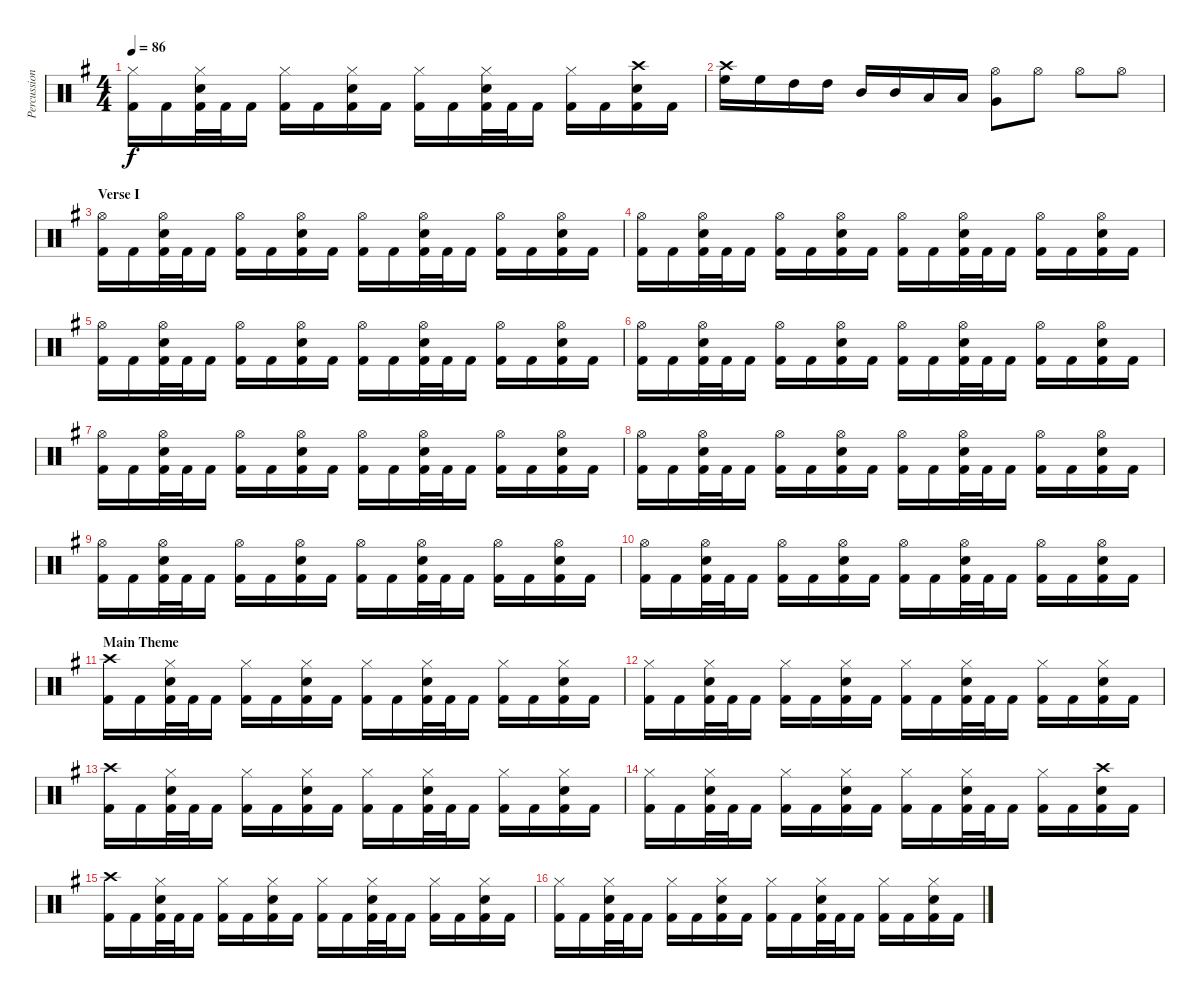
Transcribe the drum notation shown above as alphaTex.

\track ("Percussions" "Percussion") {instrument percussion}
\staff {score}
\articulation defaults
\ts (4 4)
\tempo 86
\clef neutral
\ks eminor
("Hi-Hat (closed)" "Kick (hit) 2").16{dy f} "Kick (hit) 2".16 ("Hi-Hat (closed)" "Snare (hit) 2" "Kick (hit) 2").32 "Kick (hit) 2".32 "Kick (hit) 2".16 ("Hi-Hat (closed)" "Kick (hit) 2").16 "Kick (hit) 2".16 ("Hi-Hat (closed)" "Snare (hit) 2" "Kick (hit) 2").16 "Kick (hit) 2".16 ("Hi-Hat (closed)" "Kick (hit) 2").16 "Kick (hit) 2".16 ("Hi-Hat (closed)" "Snare (hit) 2" "Kick (hit) 2").32 "Kick (hit) 2".32 "Kick (hit) 2".16 ("Hi-Hat (closed)" "Kick (hit) 2").16 "Kick (hit) 2".16 ("Crash high (hit)" "Snare (hit) 2" "Kick (hit) 2").16 "Kick (hit) 2".16 |
("Crash high (hit)" "High Floor Tom (hit)").16 "High Floor Tom (hit)".16 "High Tom (hit)".16 "High Tom (hit)".16 "Mid Tom (hit)".16 "Mid Tom (hit)".16 "Low Tom (hit)".16 "Low Tom (hit)".16 ("Hi-Hat (open)" "Very Low Tom (hit)").8 "Hi-Hat (open)".8 "Hi-Hat (open)".8 "Hi-Hat (open)".8 |
\section ("" "Verse I")
("Hi-Hat (open)" "Kick (hit) 2").16 "Kick (hit) 2".16 ("Hi-Hat (open)" "Snare (hit) 2" "Kick (hit) 2").32 "Kick (hit) 2".32 "Kick (hit) 2".16 ("Hi-Hat (open)" "Kick (hit) 2").16 "Kick (hit) 2".16 ("Hi-Hat (open)" "Snare (hit) 2" "Kick (hit) 2").16 "Kick (hit) 2".16 ("Hi-Hat (open)" "Kick (hit) 2").16 "Kick (hit) 2".16 ("Hi-Hat (open)" "Snare (hit) 2" "Kick (hit) 2").32 "Kick (hit) 2".32 "Kick (hit) 2".16 ("Hi-Hat (open)" "Kick (hit) 2").16 "Kick (hit) 2".16 ("Hi-Hat (open)" "Snare (hit) 2" "Kick (hit) 2").16 "Kick (hit) 2".16 |
("Hi-Hat (open)" "Kick (hit) 2").16 "Kick (hit) 2".16 ("Hi-Hat (open)" "Snare (hit) 2" "Kick (hit) 2").32 "Kick (hit) 2".32 "Kick (hit) 2".16 ("Hi-Hat (open)" "Kick (hit) 2").16 "Kick (hit) 2".16 ("Hi-Hat (open)" "Snare (hit) 2" "Kick (hit) 2").16 "Kick (hit) 2".16 ("Hi-Hat (open)" "Kick (hit) 2").16 "Kick (hit) 2".16 ("Hi-Hat (open)" "Snare (hit) 2" "Kick (hit) 2").32 "Kick (hit) 2".32 "Kick (hit) 2".16 ("Hi-Hat (open)" "Kick (hit) 2").16 "Kick (hit) 2".16 ("Hi-Hat (open)" "Snare (hit) 2" "Kick (hit) 2").16 "Kick (hit) 2".16 |
("Hi-Hat (open)" "Kick (hit) 2").16 "Kick (hit) 2".16 ("Hi-Hat (open)" "Snare (hit) 2" "Kick (hit) 2").32 "Kick (hit) 2".32 "Kick (hit) 2".16 ("Hi-Hat (open)" "Kick (hit) 2").16 "Kick (hit) 2".16 ("Hi-Hat (open)" "Snare (hit) 2" "Kick (hit) 2").16 "Kick (hit) 2".16 ("Hi-Hat (open)" "Kick (hit) 2").16 "Kick (hit) 2".16 ("Hi-Hat (open)" "Snare (hit) 2" "Kick (hit) 2").32 "Kick (hit) 2".32 "Kick (hit) 2".16 ("Hi-Hat (open)" "Kick (hit) 2").16 "Kick (hit) 2".16 ("Hi-Hat (open)" "Snare (hit) 2" "Kick (hit) 2").16 "Kick (hit) 2".16 |
("Hi-Hat (open)" "Kick (hit) 2").16 "Kick (hit) 2".16 ("Hi-Hat (open)" "Snare (hit) 2" "Kick (hit) 2").32 "Kick (hit) 2".32 "Kick (hit) 2".16 ("Hi-Hat (open)" "Kick (hit) 2").16 "Kick (hit) 2".16 ("Hi-Hat (open)" "Snare (hit) 2" "Kick (hit) 2").16 "Kick (hit) 2".16 ("Hi-Hat (open)" "Kick (hit) 2").16 "Kick (hit) 2".16 ("Hi-Hat (open)" "Snare (hit) 2" "Kick (hit) 2").32 "Kick (hit) 2".32 "Kick (hit) 2".16 ("Hi-Hat (open)" "Kick (hit) 2").16 "Kick (hit) 2".16 ("Hi-Hat (open)" "Snare (hit) 2" "Kick (hit) 2").16 "Kick (hit) 2".16 |
("Hi-Hat (open)" "Kick (hit) 2").16 "Kick (hit) 2".16 ("Hi-Hat (open)" "Snare (hit) 2" "Kick (hit) 2").32 "Kick (hit) 2".32 "Kick (hit) 2".16 ("Hi-Hat (open)" "Kick (hit) 2").16 "Kick (hit) 2".16 ("Hi-Hat (open)" "Snare (hit) 2" "Kick (hit) 2").16 "Kick (hit) 2".16 ("Hi-Hat (open)" "Kick (hit) 2").16 "Kick (hit) 2".16 ("Hi-Hat (open)" "Snare (hit) 2" "Kick (hit) 2").32 "Kick (hit) 2".32 "Kick (hit) 2".16 ("Hi-Hat (open)" "Kick (hit) 2").16 "Kick (hit) 2".16 ("Hi-Hat (open)" "Snare (hit) 2" "Kick (hit) 2").16 "Kick (hit) 2".16 |
("Hi-Hat (open)" "Kick (hit) 2").16 "Kick (hit) 2".16 ("Hi-Hat (open)" "Snare (hit) 2" "Kick (hit) 2").32 "Kick (hit) 2".32 "Kick (hit) 2".16 ("Hi-Hat (open)" "Kick (hit) 2").16 "Kick (hit) 2".16 ("Hi-Hat (open)" "Snare (hit) 2" "Kick (hit) 2").16 "Kick (hit) 2".16 ("Hi-Hat (open)" "Kick (hit) 2").16 "Kick (hit) 2".16 ("Hi-Hat (open)" "Snare (hit) 2" "Kick (hit) 2").32 "Kick (hit) 2".32 "Kick (hit) 2".16 ("Hi-Hat (open)" "Kick (hit) 2").16 "Kick (hit) 2".16 ("Hi-Hat (open)" "Snare (hit) 2" "Kick (hit) 2").16 "Kick (hit) 2".16 |
("Hi-Hat (open)" "Kick (hit) 2").16 "Kick (hit) 2".16 ("Hi-Hat (open)" "Snare (hit) 2" "Kick (hit) 2").32 "Kick (hit) 2".32 "Kick (hit) 2".16 ("Hi-Hat (open)" "Kick (hit) 2").16 "Kick (hit) 2".16 ("Hi-Hat (open)" "Snare (hit) 2" "Kick (hit) 2").16 "Kick (hit) 2".16 ("Hi-Hat (open)" "Kick (hit) 2").16 "Kick (hit) 2".16 ("Hi-Hat (open)" "Snare (hit) 2" "Kick (hit) 2").32 "Kick (hit) 2".32 "Kick (hit) 2".16 ("Hi-Hat (open)" "Kick (hit) 2").16 "Kick (hit) 2".16 ("Hi-Hat (open)" "Snare (hit) 2" "Kick (hit) 2").16 "Kick (hit) 2".16 |
("Hi-Hat (open)" "Kick (hit) 2").16 "Kick (hit) 2".16 ("Hi-Hat (open)" "Snare (hit) 2" "Kick (hit) 2").32 "Kick (hit) 2".32 "Kick (hit) 2".16 ("Hi-Hat (open)" "Kick (hit) 2").16 "Kick (hit) 2".16 ("Hi-Hat (open)" "Snare (hit) 2" "Kick (hit) 2").16 "Kick (hit) 2".16 ("Hi-Hat (open)" "Kick (hit) 2").16 "Kick (hit) 2".16 ("Hi-Hat (open)" "Snare (hit) 2" "Kick (hit) 2").32 "Kick (hit) 2".32 "Kick (hit) 2".16 ("Hi-Hat (open)" "Kick (hit) 2").16 "Kick (hit) 2".16 ("Hi-Hat (open)" "Snare (hit) 2" "Kick (hit) 2").16 "Kick (hit) 2".16 |
\section ("" "Main Theme")
("Crash high (hit)" "Kick (hit) 2").16 "Kick (hit) 2".16 ("Hi-Hat (closed)" "Snare (hit) 2" "Kick (hit) 2").32 "Kick (hit) 2".32 "Kick (hit) 2".16 ("Hi-Hat (closed)" "Kick (hit) 2").16 "Kick (hit) 2".16 ("Hi-Hat (closed)" "Snare (hit) 2" "Kick (hit) 2").16 "Kick (hit) 2".16 ("Hi-Hat (closed)" "Kick (hit) 2").16 "Kick (hit) 2".16 ("Hi-Hat (closed)" "Snare (hit) 2" "Kick (hit) 2").32 "Kick (hit) 2".32 "Kick (hit) 2".16 ("Hi-Hat (closed)" "Kick (hit) 2").16 "Kick (hit) 2".16 ("Hi-Hat (closed)" "Snare (hit) 2" "Kick (hit) 2").16 "Kick (hit) 2".16 |
("Hi-Hat (closed)" "Kick (hit) 2").16 "Kick (hit) 2".16 ("Hi-Hat (closed)" "Snare (hit) 2" "Kick (hit) 2").32 "Kick (hit) 2".32 "Kick (hit) 2".16 ("Hi-Hat (closed)" "Kick (hit) 2").16 "Kick (hit) 2".16 ("Hi-Hat (closed)" "Snare (hit) 2" "Kick (hit) 2").16 "Kick (hit) 2".16 ("Hi-Hat (closed)" "Kick (hit) 2").16 "Kick (hit) 2".16 ("Hi-Hat (closed)" "Snare (hit) 2" "Kick (hit) 2").32 "Kick (hit) 2".32 "Kick (hit) 2".16 ("Hi-Hat (closed)" "Kick (hit) 2").16 "Kick (hit) 2".16 ("Hi-Hat (closed)" "Snare (hit) 2" "Kick (hit) 2").16 "Kick (hit) 2".16 |
("Crash high (hit)" "Kick (hit) 2").16 "Kick (hit) 2".16 ("Hi-Hat (closed)" "Snare (hit) 2" "Kick (hit) 2").32 "Kick (hit) 2".32 "Kick (hit) 2".16 ("Hi-Hat (closed)" "Kick (hit) 2").16 "Kick (hit) 2".16 ("Hi-Hat (closed)" "Snare (hit) 2" "Kick (hit) 2").16 "Kick (hit) 2".16 ("Hi-Hat (closed)" "Kick (hit) 2").16 "Kick (hit) 2".16 ("Hi-Hat (closed)" "Snare (hit) 2" "Kick (hit) 2").32 "Kick (hit) 2".32 "Kick (hit) 2".16 ("Hi-Hat (closed)" "Kick (hit) 2").16 "Kick (hit) 2".16 ("Hi-Hat (closed)" "Snare (hit) 2" "Kick (hit) 2").16 "Kick (hit) 2".16 |
("Hi-Hat (closed)" "Kick (hit) 2").16 "Kick (hit) 2".16 ("Hi-Hat (closed)" "Snare (hit) 2" "Kick (hit) 2").32 "Kick (hit) 2".32 "Kick (hit) 2".16 ("Hi-Hat (closed)" "Kick (hit) 2").16 "Kick (hit) 2".16 ("Hi-Hat (closed)" "Snare (hit) 2" "Kick (hit) 2").16 "Kick (hit) 2".16 ("Hi-Hat (closed)" "Kick (hit) 2").16 "Kick (hit) 2".16 ("Hi-Hat (closed)" "Snare (hit) 2" "Kick (hit) 2").32 "Kick (hit) 2".32 "Kick (hit) 2".16 ("Hi-Hat (closed)" "Kick (hit) 2").16 "Kick (hit) 2".16 ("Crash high (hit)" "Snare (hit) 2" "Kick (hit) 2").16 "Kick (hit) 2".16 |
("Crash high (hit)" "Kick (hit) 2").16 "Kick (hit) 2".16 ("Hi-Hat (closed)" "Snare (hit) 2" "Kick (hit) 2").32 "Kick (hit) 2".32 "Kick (hit) 2".16 ("Hi-Hat (closed)" "Kick (hit) 2").16 "Kick (hit) 2".16 ("Hi-Hat (closed)" "Snare (hit) 2" "Kick (hit) 2").16 "Kick (hit) 2".16 ("Hi-Hat (closed)" "Kick (hit) 2").16 "Kick (hit) 2".16 ("Hi-Hat (closed)" "Snare (hit) 2" "Kick (hit) 2").32 "Kick (hit) 2".32 "Kick (hit) 2".16 ("Hi-Hat (closed)" "Kick (hit) 2").16 "Kick (hit) 2".16 ("Hi-Hat (closed)" "Snare (hit) 2" "Kick (hit) 2").16 "Kick (hit) 2".16 |
("Hi-Hat (closed)" "Kick (hit) 2").16 "Kick (hit) 2".16 ("Hi-Hat (closed)" "Snare (hit) 2" "Kick (hit) 2").32 "Kick (hit) 2".32 "Kick (hit) 2".16 ("Hi-Hat (closed)" "Kick (hit) 2").16 "Kick (hit) 2".16 ("Hi-Hat (closed)" "Snare (hit) 2" "Kick (hit) 2").16 "Kick (hit) 2".16 ("Hi-Hat (closed)" "Kick (hit) 2").16 "Kick (hit) 2".16 ("Hi-Hat (closed)" "Snare (hit) 2" "Kick (hit) 2").32 "Kick (hit) 2".32 "Kick (hit) 2".16 ("Hi-Hat (closed)" "Kick (hit) 2").16 "Kick (hit) 2".16 ("Hi-Hat (closed)" "Snare (hit) 2" "Kick (hit) 2").16 "Kick (hit) 2".16
